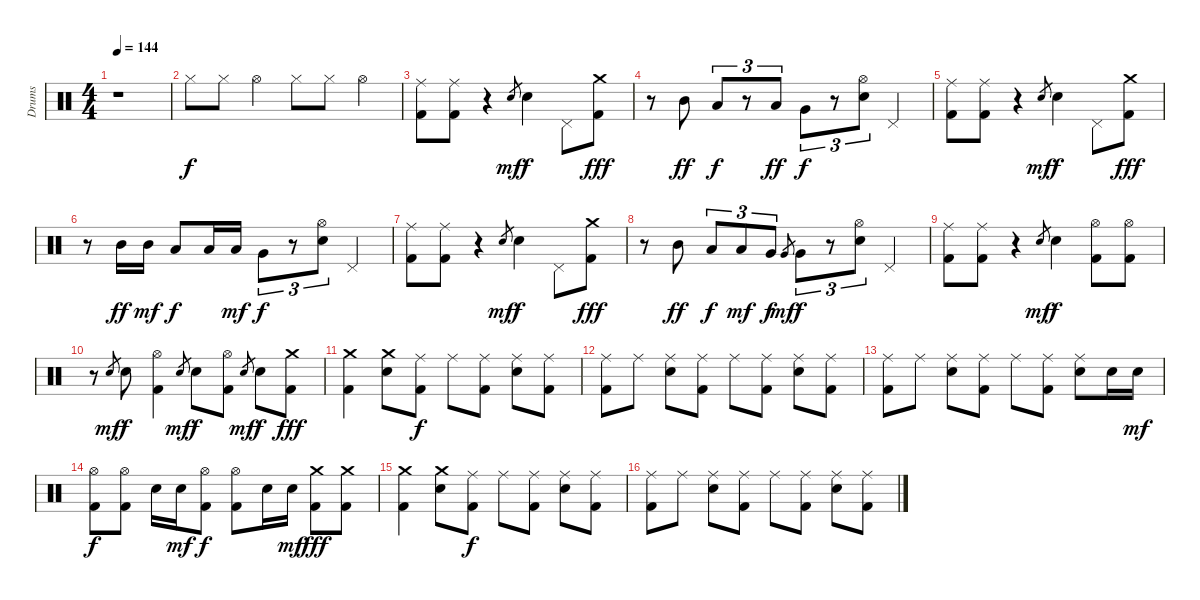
\bracketExtendMode groupsimilarinstruments
\otherSystemsTrackNameOrientation horizontal
\track ("Drumkit" "Drums") {instrument percussion}
\staff {score}
\articulation defaults
\ts (4 4)
\tempo 144
\clef neutral
\ks c
r.1{dy f beam Down} |
"Hi-Hat (closed)".8{beam Down} "Hi-Hat (closed)".8{beam Down} "Hi-Hat (open)".4{beam Down} "Hi-Hat (closed)".8{beam Down} "Hi-Hat (closed)".8{beam Down} "Hi-Hat (open)".4{beam Down} |
("Ride (middle)" "Kick (hit) 2").8{beam Down} ("Ride (middle)" "Kick (hit) 2").8{beam Down} r.4{beam Down} "Snare (hit) 2".8{gr dy mf beam Up} "Snare (hit) 2".4{dy f beam Down} "Pedal Hi-Hat (hit)".8{beam Down} ("Crash medium (hit)" "Kick (hit) 2").8{dy fff beam Down} |
r.8{beam Down} "Mid Tom (hit)".8{dy ff beam Down} "Low Tom (hit)".8{tu (3 2) dy f beam Up} r.8{tu (3 2) beam Up} "Low Tom (hit)".8{tu (3 2) dy ff beam Up} "Very Low Tom (hit)".8{tu (3 2) dy f beam Down} r.8{tu (3 2) beam Down} ("Hi-Hat (open)" "Snare (hit) 2").8{tu (3 2) beam Down} "Pedal Hi-Hat (hit)".4{beam Up} |
("Ride (middle)" "Kick (hit) 2").8{beam Down} ("Ride (middle)" "Kick (hit) 2").8{beam Down} r.4{beam Down} "Snare (hit) 2".8{gr dy mf beam Up} "Snare (hit) 2".4{dy f beam Down} "Pedal Hi-Hat (hit)".8{beam Down} ("Crash medium (hit)" "Kick (hit) 2").8{dy fff beam Down} |
r.8{beam Down} "Mid Tom (hit)".16{dy ff beam Up} "Mid Tom (hit)".16{dy mf beam Up} "Low Tom (hit)".8{dy f beam Up} "Low Tom (hit)".16{beam Up} "Low Tom (hit)".16{dy mf beam Up} "Very Low Tom (hit)".8{tu (3 2) dy f beam Down} r.8{tu (3 2) beam Down} ("Hi-Hat (open)" "Snare (hit) 2").8{tu (3 2) beam Down} "Pedal Hi-Hat (hit)".4{beam Up} |
("Ride (middle)" "Kick (hit) 2").8{beam Down} ("Ride (middle)" "Kick (hit) 2").8{beam Down} r.4{beam Down} "Snare (hit) 2".8{gr dy mf beam Up} "Snare (hit) 2".4{dy f beam Down} "Pedal Hi-Hat (hit)".8{beam Down} ("Crash medium (hit)" "Kick (hit) 2").8{dy fff beam Down} |
r.8{beam Down} "Mid Tom (hit)".8{dy ff beam Down} "Low Tom (hit)".8{tu (3 2) dy f beam Up} "Low Tom (hit)".8{tu (3 2) dy mf beam Up} "Very Low Tom (hit)".8{tu (3 2) dy f beam Up} "Very Low Tom (hit)".8{gr dy mf beam Up} "Very Low Tom (hit)".8{tu (3 2) dy f beam Down} r.8{tu (3 2) beam Down} ("Hi-Hat (open)" "Snare (hit) 2").8{tu (3 2) beam Down} "Pedal Hi-Hat (hit)".4{beam Up} |
("Ride (middle)" "Kick (hit) 2").8{beam Down} ("Ride (middle)" "Kick (hit) 2").8{beam Down} r.4{beam Down} "Snare (hit) 2".8{gr dy mf beam Up} "Snare (hit) 2".4{dy f beam Down} ("Hi-Hat (open)" "Kick (hit) 2").8{beam Down} ("Hi-Hat (open)" "Kick (hit) 2").8{beam Down} |
r.8{beam Down} "Snare (hit) 2".8{gr dy mf beam Up} "Snare (hit) 2".8{dy f beam Down} ("Hi-Hat (open)" "Kick (hit) 2").4{beam Down} "Snare (hit) 2".8{gr dy mf beam Up} "Snare (hit) 2".8{dy f beam Down} ("Hi-Hat (open)" "Kick (hit) 2").8{beam Down} "Snare (hit) 2".8{gr dy mf beam Up} "Snare (hit) 2".8{dy f beam Down} ("Crash medium (hit)" "Kick (hit) 2").8{dy fff beam Down} |
("Crash medium (hit)" "Kick (hit) 2").4{beam Down} ("Crash medium (hit)" "Snare (hit) 2").8{beam Down} ("Ride (middle)" "Kick (hit) 2").8{dy f beam Down} "Ride (middle)".8{beam Down} ("Ride (middle)" "Kick (hit) 2").8{beam Down} ("Ride (middle)" "Snare (hit) 2").8{beam Down} ("Ride (middle)" "Kick (hit) 2").8{beam Down} |
("Ride (middle)" "Kick (hit) 2").8{beam Down} "Ride (middle)".8{beam Down} ("Ride (middle)" "Snare (hit) 2").8{beam Down} ("Ride (middle)" "Kick (hit) 2").8{beam Down} "Ride (middle)".8{beam Down} ("Ride (middle)" "Kick (hit) 2").8{beam Down} ("Ride (middle)" "Snare (hit) 2").8{beam Down} ("Ride (middle)" "Kick (hit) 2").8{beam Down} |
("Ride (middle)" "Kick (hit) 2").8{beam Down} "Ride (middle)".8{beam Down} ("Ride (middle)" "Snare (hit) 2").8{beam Down} ("Ride (middle)" "Kick (hit) 2").8{beam Down} "Ride (middle)".8{beam Down} ("Ride (middle)" "Kick (hit) 2").8{beam Down} ("Ride (middle)" "Snare (hit) 2").8{beam Down} "Snare (hit) 2".16{beam Down} "Snare (hit) 2".16{dy mf beam Down} |
("Hi-Hat (open)" "Kick (hit) 2").8{dy f beam Down} ("Hi-Hat (open)" "Kick (hit) 2").8{beam Down} "Snare (hit) 2".16{beam Down} "Snare (hit) 2".16{dy mf beam Down} ("Hi-Hat (open)" "Kick (hit) 2").8{dy f beam Down} ("Hi-Hat (open)" "Kick (hit) 2").8{beam Down} "Snare (hit) 2".16{beam Down} "Snare (hit) 2".16{dy mf beam Down} ("Crash medium (hit)" "Kick (hit) 2").8{dy fff beam Down} ("Crash medium (hit)" "Kick (hit) 2").8{beam Down} |
("Crash medium (hit)" "Kick (hit) 2").4{beam Down} ("Crash medium (hit)" "Snare (hit) 2").8{beam Down} ("Ride (middle)" "Kick (hit) 2").8{dy f beam Down} "Ride (middle)".8{beam Down} ("Ride (middle)" "Kick (hit) 2").8{beam Down} ("Ride (middle)" "Snare (hit) 2").8{beam Down} ("Ride (middle)" "Kick (hit) 2").8{beam Down} |
("Ride (middle)" "Kick (hit) 2").8{beam Down} "Ride (middle)".8{beam Down} ("Ride (middle)" "Snare (hit) 2").8{beam Down} ("Ride (middle)" "Kick (hit) 2").8{beam Down} "Ride (middle)".8{beam Down} ("Ride (middle)" "Kick (hit) 2").8{beam Down} ("Ride (middle)" "Snare (hit) 2").8{beam Down} ("Ride (middle)" "Kick (hit) 2").8{beam Down}
